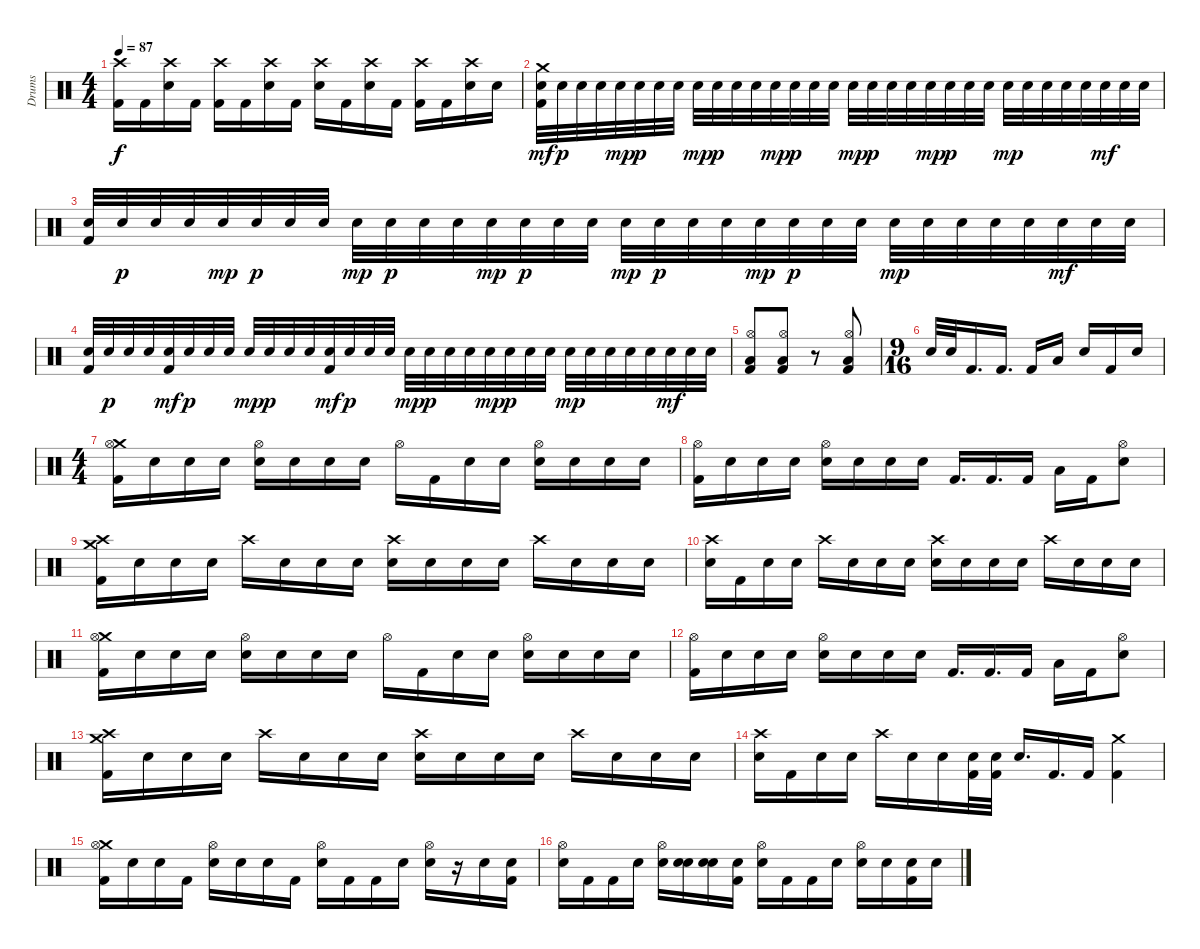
\track ("Drums" "Drums") {instrument percussion}
\staff {score}
\articulation defaults
\ts (4 4)
\tempo 87
\clef neutral
\ks c
("Crash high (hit)" "Kick (hit) 2").16{dy f} "Kick (hit) 2".16 ("Crash high (hit)" "Electric Snare (hit)").16 "Kick (hit) 2".16 ("Crash high (hit)" "Kick (hit) 2").16 "Kick (hit) 2".16 ("Crash high (hit)" "Electric Snare (hit)").16 "Kick (hit) 2".16 ("Crash high (hit)" "Snare (hit)").16 "Kick (hit) 2".16 ("Crash high (hit)" "Electric Snare (hit)").16 "Kick (hit) 2".16 ("Crash high (hit)" "Kick (hit) 2").16 "Kick (hit) 2".16 ("Crash high (hit)" "Electric Snare (hit)").16 "Snare (hit)".16 |
("Crash medium (hit)" "Electric Snare (hit)" "Kick (hit) 2").32{dy mf} "Electric Snare (hit)".32{dy p} "Electric Snare (hit)".32 "Electric Snare (hit)".32 "Electric Snare (hit)".32{dy mp} "Electric Snare (hit)".32{dy p} "Electric Snare (hit)".32 "Electric Snare (hit)".32 "Electric Snare (hit)".32{dy mp} "Electric Snare (hit)".32{dy p} "Electric Snare (hit)".32 "Electric Snare (hit)".32 "Electric Snare (hit)".32{dy mp} "Electric Snare (hit)".32{dy p} "Electric Snare (hit)".32 "Electric Snare (hit)".32 "Electric Snare (hit)".32{dy mp} "Electric Snare (hit)".32{dy p} "Electric Snare (hit)".32 "Electric Snare (hit)".32 "Electric Snare (hit)".32{dy mp} "Electric Snare (hit)".32{dy p} "Electric Snare (hit)".32 "Electric Snare (hit)".32 "Electric Snare (hit)".32{dy mp} "Electric Snare (hit)".32 "Electric Snare (hit)".32 "Electric Snare (hit)".32 "Electric Snare (hit)".32 "Electric Snare (hit)".32{dy mf} "Electric Snare (hit)".32 "Electric Snare (hit)".32 |
("Electric Snare (hit)" "Kick (hit) 2").32 "Electric Snare (hit)".32{dy p} "Electric Snare (hit)".32 "Electric Snare (hit)".32 "Electric Snare (hit)".32{dy mp} "Electric Snare (hit)".32{dy p} "Electric Snare (hit)".32 "Electric Snare (hit)".32 "Electric Snare (hit)".32{dy mp} "Electric Snare (hit)".32{dy p} "Electric Snare (hit)".32 "Electric Snare (hit)".32 "Electric Snare (hit)".32{dy mp} "Electric Snare (hit)".32{dy p} "Electric Snare (hit)".32 "Electric Snare (hit)".32 "Electric Snare (hit)".32{dy mp} "Electric Snare (hit)".32{dy p} "Electric Snare (hit)".32 "Electric Snare (hit)".32 "Electric Snare (hit)".32{dy mp} "Electric Snare (hit)".32{dy p} "Electric Snare (hit)".32 "Electric Snare (hit)".32 "Electric Snare (hit)".32{dy mp} "Electric Snare (hit)".32 "Electric Snare (hit)".32 "Electric Snare (hit)".32 "Electric Snare (hit)".32 "Electric Snare (hit)".32{dy mf} "Electric Snare (hit)".32 "Electric Snare (hit)".32 |
("Electric Snare (hit)" "Kick (hit) 2").32 "Electric Snare (hit)".32{dy p} "Electric Snare (hit)".32 "Electric Snare (hit)".32 ("Electric Snare (hit)" "Kick (hit) 2").32{dy mf} "Electric Snare (hit)".32{dy p} "Electric Snare (hit)".32 "Electric Snare (hit)".32 "Electric Snare (hit)".32{dy mp} "Electric Snare (hit)".32{dy p} "Electric Snare (hit)".32 "Electric Snare (hit)".32 ("Electric Snare (hit)" "Kick (hit) 2").32{dy mf} "Electric Snare (hit)".32{dy p} "Electric Snare (hit)".32 "Electric Snare (hit)".32 "Electric Snare (hit)".32{dy mp} "Electric Snare (hit)".32{dy p} "Electric Snare (hit)".32 "Electric Snare (hit)".32 "Electric Snare (hit)".32{dy mp} "Electric Snare (hit)".32{dy p} "Electric Snare (hit)".32 "Electric Snare (hit)".32 "Electric Snare (hit)".32{dy mp} "Electric Snare (hit)".32 "Electric Snare (hit)".32 "Electric Snare (hit)".32 "Electric Snare (hit)".32 "Electric Snare (hit)".32{dy mf} "Electric Snare (hit)".32 "Electric Snare (hit)".32 |
("Hi-Hat (open)" "Low Floor Tom (hit)" "Kick (hit) 2").8 ("Hi-Hat (open)" "Low Floor Tom (hit)" "Kick (hit) 2").8 r.8 ("Hi-Hat (open)" "Low Floor Tom (hit)" "Kick (hit) 2").8 |
\ts (9 16)
"Electric Snare (hit)".32 "Electric Snare (hit)".32 "Kick (hit) 2".16{d} "Kick (hit) 2".16{d} "Kick (hit) 2".16 "Low Floor Tom (hit)".16 "Electric Snare (hit)".16 "Kick (hit) 2".16 "Electric Snare (hit)".16 |
\ts (4 4)
("Crash medium (hit)" "Hi-Hat (open)" "Kick (hit) 2").16 "Snare (hit)".16 "Snare (hit)".16 "Snare (hit)".16 ("Hi-Hat (open)" "Electric Snare (hit)").16 "Snare (hit)".16 "Snare (hit)".16 "Snare (hit)".16 "Hi-Hat (open)".16 "Kick (hit) 2".16 "Snare (hit)".16 "Snare (hit)".16 ("Hi-Hat (open)" "Electric Snare (hit)").16 "Snare (hit)".16 "Snare (hit)".16 "Snare (hit)".16 |
("Hi-Hat (open)" "Kick (hit) 2").16 "Snare (hit)".16 "Snare (hit)".16 "Snare (hit)".16 ("Hi-Hat (open)" "Electric Snare (hit)").16 "Snare (hit)".16 "Snare (hit)".16 "Snare (hit)".16 "Kick (hit) 2".16{d} "Kick (hit) 2".16{d} "Kick (hit) 2".16 "Low Floor Tom (hit)".16 "Kick (hit) 2".16 ("Hi-Hat (open)" "Electric Snare (hit)").8 |
("Crash medium (hit)" "Crash high (hit)" "Kick (hit) 2").16 "Snare (hit)".16 "Snare (hit)".16 "Snare (hit)".16 "Crash high (hit)".16 "Snare (hit)".16 "Snare (hit)".16 "Snare (hit)".16 ("Crash high (hit)" "Electric Snare (hit)").16 "Snare (hit)".16 "Snare (hit)".16 "Snare (hit)".16 "Crash high (hit)".16 "Snare (hit)".16 "Snare (hit)".16 "Snare (hit)".16 |
("Crash high (hit)" "Snare (hit)").16 "Kick (hit) 2".16 "Snare (hit)".16 "Snare (hit)".16 "Crash high (hit)".16 "Snare (hit)".16 "Snare (hit)".16 "Snare (hit)".16 ("Crash high (hit)" "Electric Snare (hit)").16 "Snare (hit)".16 "Snare (hit)".16 "Snare (hit)".16 "Crash high (hit)".16 "Snare (hit)".16 "Snare (hit)".16 "Snare (hit)".16 |
("Crash medium (hit)" "Hi-Hat (open)" "Kick (hit) 2").16 "Snare (hit)".16 "Snare (hit)".16 "Snare (hit)".16 ("Hi-Hat (open)" "Electric Snare (hit)").16 "Snare (hit)".16 "Snare (hit)".16 "Snare (hit)".16 "Hi-Hat (open)".16 "Kick (hit) 2".16 "Snare (hit)".16 "Snare (hit)".16 ("Hi-Hat (open)" "Electric Snare (hit)").16 "Snare (hit)".16 "Snare (hit)".16 "Snare (hit)".16 |
("Hi-Hat (open)" "Kick (hit) 2").16 "Snare (hit)".16 "Snare (hit)".16 "Snare (hit)".16 ("Hi-Hat (open)" "Electric Snare (hit)").16 "Snare (hit)".16 "Snare (hit)".16 "Snare (hit)".16 "Kick (hit) 2".16{d} "Kick (hit) 2".16{d} "Kick (hit) 2".16 "Low Floor Tom (hit)".16 "Kick (hit) 2".16 ("Hi-Hat (open)" "Electric Snare (hit)").8 |
("Crash medium (hit)" "Crash high (hit)" "Kick (hit) 2").16 "Snare (hit)".16 "Snare (hit)".16 "Snare (hit)".16 "Crash high (hit)".16 "Snare (hit)".16 "Snare (hit)".16 "Snare (hit)".16 ("Crash high (hit)" "Electric Snare (hit)").16 "Snare (hit)".16 "Snare (hit)".16 "Snare (hit)".16 "Crash high (hit)".16 "Snare (hit)".16 "Snare (hit)".16 "Snare (hit)".16 |
("Crash high (hit)" "Snare (hit)").16 "Kick (hit) 2".16 "Snare (hit)".16 "Snare (hit)".16 "Crash high (hit)".16 "Snare (hit)".16 "Snare (hit)".16 ("Snare (hit)" "Kick (hit) 2").32 ("Snare (hit)" "Kick (hit) 2").32 "Electric Snare (hit)".16{d} "Kick (hit) 2".16{d} "Kick (hit) 2".16 ("Crash medium (hit)" "Kick (hit) 2").4 |
("Crash medium (hit)" "Hi-Hat (open)" "Kick (hit) 2").16 "Snare (hit)".16 "Snare (hit)".16 "Kick (hit) 2".16 ("Hi-Hat (open)" "Electric Snare (hit)").16 "Snare (hit)".16 "Snare (hit)".16 "Kick (hit) 2".16 ("Hi-Hat (open)" "Snare (hit)").16 "Kick (hit) 2".16 "Kick (hit) 2".16 "Snare (hit)".16 ("Hi-Hat (open)" "Electric Snare (hit)").16 r.16 "Snare (hit)".16 ("Snare (hit)" "Kick (hit) 2").16 |
("Hi-Hat (open)" "Snare (hit)").16 "Kick (hit) 2".16 "Kick (hit) 2".16 "Snare (hit)".16 ("Hi-Hat (open)" "Electric Snare (hit)").16 ("Snare (hit)" "Snare (hit)").16 ("Snare (hit)" "Snare (hit)").16 ("Snare (hit)" "Kick (hit) 2").16 ("Hi-Hat (open)" "Snare (hit)").16 "Kick (hit) 2".16 "Kick (hit) 2".16 "Snare (hit)".16 ("Hi-Hat (open)" "Electric Snare (hit)").16 "Snare (hit)".16 ("Snare (hit)" "Kick (hit) 2").16 "Snare (hit)".16
